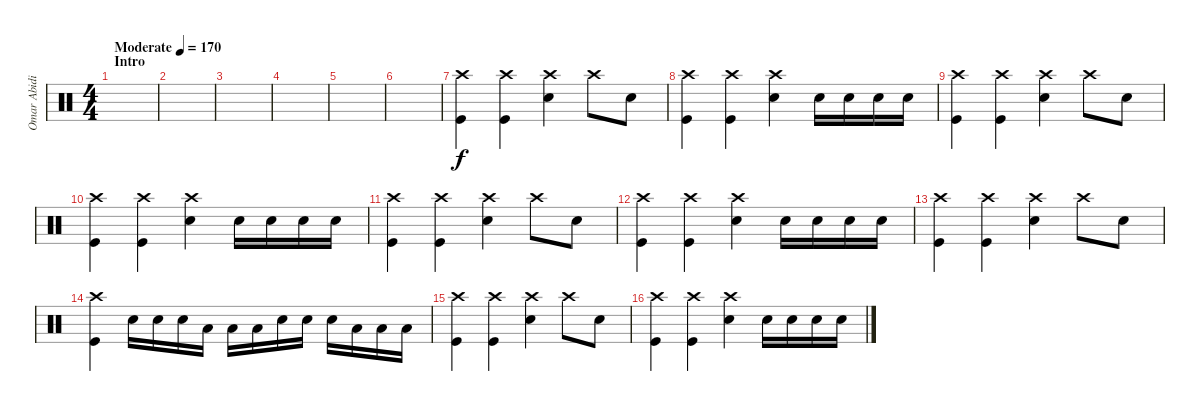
\track ("Omar Abidi" "Omar Abidi") {instrument percussion}
\staff {score}
\articulation defaults
\ts (4 4)
\section ("" "Intro")
\tempo (170 "Moderate")
\clef neutral
\ks c
|
|
|
|
|
|
("Crash high (hit)" "Kick (hit)").4 ("Crash high (hit)" "Kick (hit)").4 ("Crash high (hit)" "Snare (hit) 2").4 "Crash high (hit)".8 "Snare (hit) 2".8 |
("Crash high (hit)" "Kick (hit)").4 ("Crash high (hit)" "Kick (hit)").4 ("Crash high (hit)" "Snare (hit) 2").4 "Snare (hit) 2".16 "Snare (hit) 2".16 "Snare (hit) 2".16 "Snare (hit) 2".16 |
("Crash high (hit)" "Kick (hit)").4 ("Crash high (hit)" "Kick (hit)").4 ("Crash high (hit)" "Snare (hit) 2").4 "Crash high (hit)".8 "Snare (hit) 2".8 |
("Crash high (hit)" "Kick (hit)").4 ("Crash high (hit)" "Kick (hit)").4 ("Crash high (hit)" "Snare (hit) 2").4 "Snare (hit) 2".16 "Snare (hit) 2".16 "Snare (hit) 2".16 "Snare (hit) 2".16 |
("Crash high (hit)" "Kick (hit)").4 ("Crash high (hit)" "Kick (hit)").4 ("Crash high (hit)" "Snare (hit) 2").4 "Crash high (hit)".8 "Snare (hit) 2".8 |
("Crash high (hit)" "Kick (hit)").4 ("Crash high (hit)" "Kick (hit)").4 ("Crash high (hit)" "Snare (hit) 2").4 "Snare (hit) 2".16 "Snare (hit) 2".16 "Snare (hit) 2".16 "Snare (hit) 2".16 |
("Crash high (hit)" "Kick (hit)").4 ("Crash high (hit)" "Kick (hit)").4 ("Crash high (hit)" "Snare (hit) 2").4 "Crash high (hit)".8 "Snare (hit) 2".8 |
("Crash high (hit)" "Kick (hit)").4 "Snare (hit) 2".16 "Snare (hit) 2".16 "Snare (hit) 2".16 "Low Floor Tom (hit)".16 "Low Floor Tom (hit)".16 "Low Floor Tom (hit)".16 "Snare (hit) 2".16 "Snare (hit) 2".16 "Snare (hit) 2".16 "Low Floor Tom (hit)".16 "Low Floor Tom (hit)".16 "Low Floor Tom (hit)".16 |
("Crash high (hit)" "Kick (hit)").4 ("Crash high (hit)" "Kick (hit)").4 ("Crash high (hit)" "Snare (hit) 2").4 "Crash high (hit)".8 "Snare (hit) 2".8 |
("Crash high (hit)" "Kick (hit)").4 ("Crash high (hit)" "Kick (hit)").4 ("Crash high (hit)" "Snare (hit) 2").4 "Snare (hit) 2".16 "Snare (hit) 2".16 "Snare (hit) 2".16 "Snare (hit) 2".16
